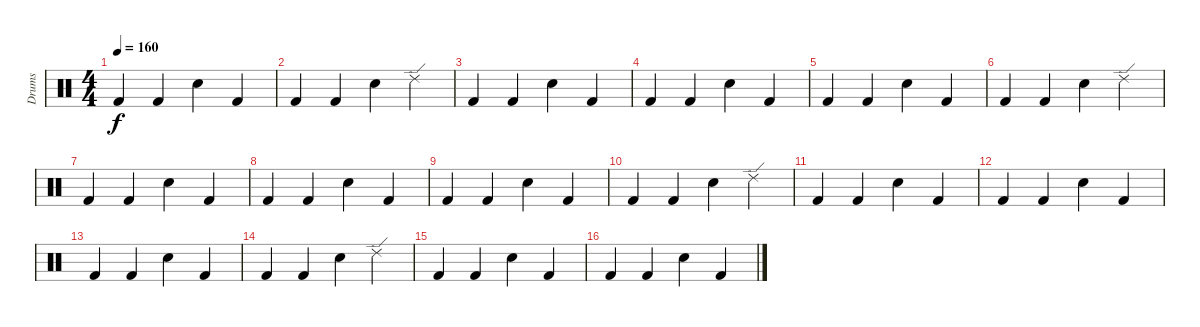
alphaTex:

\track ("Drums" "Drums") {instrument percussion}
\staff {score}
\articulation defaults
\ts (4 4)
\tempo 160
\clef neutral
\ks c "Kick (hit) 2".4{dy f} "Kick (hit) 2".4 "Snare (hit) 2".4 "Kick (hit) 2".4
|
"Kick (hit) 2".4 "Kick (hit) 2".4 "Snare (hit) 2".4 "Ride (edge) 2".4 |
"Kick (hit) 2".4 "Kick (hit) 2".4 "Snare (hit) 2".4 "Kick (hit) 2".4 |
"Kick (hit) 2".4 "Kick (hit) 2".4 "Snare (hit) 2".4 "Kick (hit) 2".4 |
"Kick (hit) 2".4 "Kick (hit) 2".4 "Snare (hit) 2".4 "Kick (hit) 2".4 |
"Kick (hit) 2".4 "Kick (hit) 2".4 "Snare (hit) 2".4 "Ride (edge) 2".4 |
"Kick (hit) 2".4 "Kick (hit) 2".4 "Snare (hit) 2".4 "Kick (hit) 2".4 |
"Kick (hit) 2".4 "Kick (hit) 2".4 "Snare (hit) 2".4 "Kick (hit) 2".4 |
"Kick (hit) 2".4 "Kick (hit) 2".4 "Snare (hit) 2".4 "Kick (hit) 2".4 |
"Kick (hit) 2".4 "Kick (hit) 2".4 "Snare (hit) 2".4 "Ride (edge) 2".4 |
"Kick (hit) 2".4 "Kick (hit) 2".4 "Snare (hit) 2".4 "Kick (hit) 2".4 |
"Kick (hit) 2".4 "Kick (hit) 2".4 "Snare (hit) 2".4 "Kick (hit) 2".4 |
"Kick (hit) 2".4 "Kick (hit) 2".4 "Snare (hit) 2".4 "Kick (hit) 2".4 |
"Kick (hit) 2".4 "Kick (hit) 2".4 "Snare (hit) 2".4 "Ride (edge) 2".4 |
"Kick (hit) 2".4 "Kick (hit) 2".4 "Snare (hit) 2".4 "Kick (hit) 2".4 |
"Kick (hit) 2".4 "Kick (hit) 2".4 "Snare (hit) 2".4 "Kick (hit) 2".4
